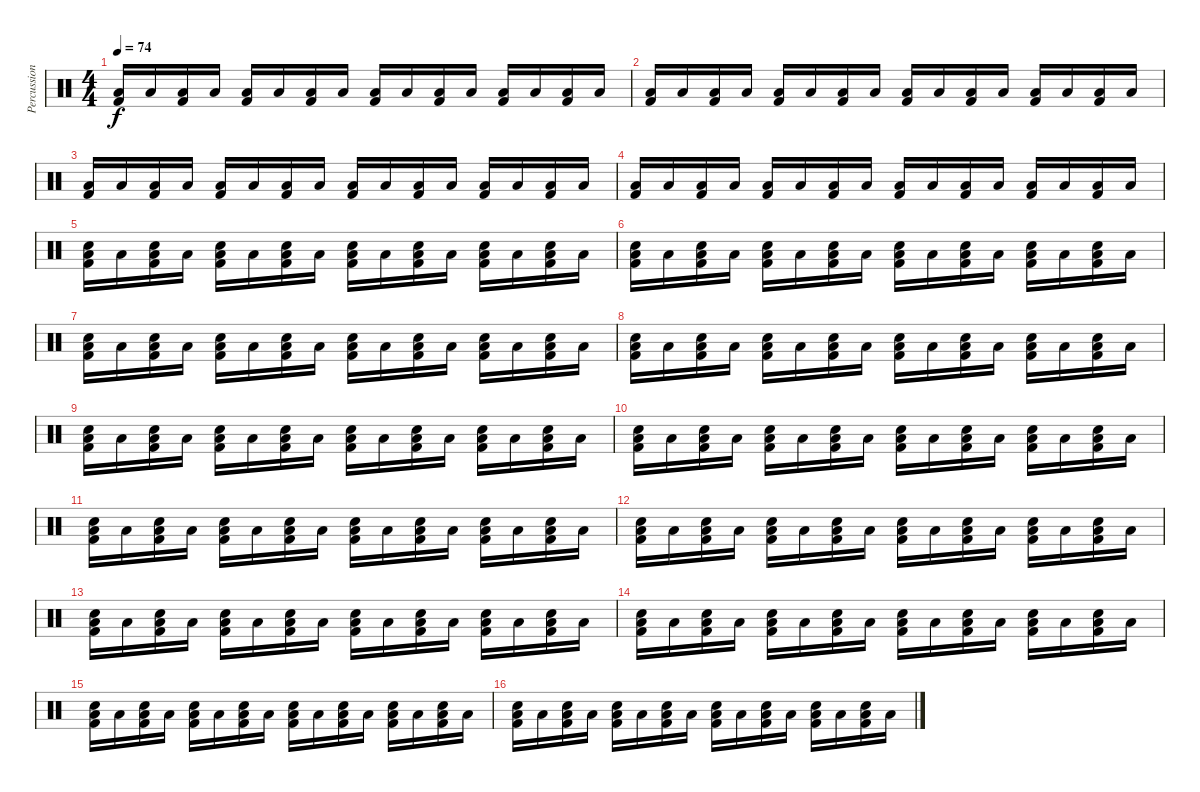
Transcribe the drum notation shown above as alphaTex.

\track ("Percussion" "Percussion") {instrument percussion}
\staff {score}
\articulation defaults
\ts (4 4)
\tempo 74
\clef neutral
\ks c
("Low Floor Tom (hit)" "Kick (hit) 2").16{dy f} "Low Floor Tom (hit)".16 ("Low Floor Tom (hit)" "Kick (hit) 2").16 "Low Floor Tom (hit)".16 ("Low Floor Tom (hit)" "Kick (hit) 2").16 "Low Floor Tom (hit)".16 ("Low Floor Tom (hit)" "Kick (hit) 2").16 "Low Floor Tom (hit)".16 ("Low Floor Tom (hit)" "Kick (hit) 2").16 "Low Floor Tom (hit)".16 ("Low Floor Tom (hit)" "Kick (hit) 2").16 "Low Floor Tom (hit)".16 ("Low Floor Tom (hit)" "Kick (hit) 2").16 "Low Floor Tom (hit)".16 ("Low Floor Tom (hit)" "Kick (hit) 2").16 "Low Floor Tom (hit)".16 |
("Low Floor Tom (hit)" "Kick (hit) 2").16 "Low Floor Tom (hit)".16 ("Low Floor Tom (hit)" "Kick (hit) 2").16 "Low Floor Tom (hit)".16 ("Low Floor Tom (hit)" "Kick (hit) 2").16 "Low Floor Tom (hit)".16 ("Low Floor Tom (hit)" "Kick (hit) 2").16 "Low Floor Tom (hit)".16 ("Low Floor Tom (hit)" "Kick (hit) 2").16 "Low Floor Tom (hit)".16 ("Low Floor Tom (hit)" "Kick (hit) 2").16 "Low Floor Tom (hit)".16 ("Low Floor Tom (hit)" "Kick (hit) 2").16 "Low Floor Tom (hit)".16 ("Low Floor Tom (hit)" "Kick (hit) 2").16 "Low Floor Tom (hit)".16 |
("Low Floor Tom (hit)" "Kick (hit) 2").16 "Low Floor Tom (hit)".16 ("Low Floor Tom (hit)" "Kick (hit) 2").16 "Low Floor Tom (hit)".16 ("Low Floor Tom (hit)" "Kick (hit) 2").16 "Low Floor Tom (hit)".16 ("Low Floor Tom (hit)" "Kick (hit) 2").16 "Low Floor Tom (hit)".16 ("Low Floor Tom (hit)" "Kick (hit) 2").16 "Low Floor Tom (hit)".16 ("Low Floor Tom (hit)" "Kick (hit) 2").16 "Low Floor Tom (hit)".16 ("Low Floor Tom (hit)" "Kick (hit) 2").16 "Low Floor Tom (hit)".16 ("Low Floor Tom (hit)" "Kick (hit) 2").16 "Low Floor Tom (hit)".16 |
("Low Floor Tom (hit)" "Kick (hit) 2").16 "Low Floor Tom (hit)".16 ("Low Floor Tom (hit)" "Kick (hit) 2").16 "Low Floor Tom (hit)".16 ("Low Floor Tom (hit)" "Kick (hit) 2").16 "Low Floor Tom (hit)".16 ("Low Floor Tom (hit)" "Kick (hit) 2").16 "Low Floor Tom (hit)".16 ("Low Floor Tom (hit)" "Kick (hit) 2").16 "Low Floor Tom (hit)".16 ("Low Floor Tom (hit)" "Kick (hit) 2").16 "Low Floor Tom (hit)".16 ("Low Floor Tom (hit)" "Kick (hit) 2").16 "Low Floor Tom (hit)".16 ("Low Floor Tom (hit)" "Kick (hit) 2").16 "Low Floor Tom (hit)".16 |
("Low Floor Tom (hit)" "Kick (hit) 2" "Electric Snare (hit)").16 "Low Floor Tom (hit)".16 ("Low Floor Tom (hit)" "Kick (hit) 2" "Electric Snare (hit)").16 "Low Floor Tom (hit)".16 ("Low Floor Tom (hit)" "Kick (hit) 2" "Electric Snare (hit)").16 "Low Floor Tom (hit)".16 ("Low Floor Tom (hit)" "Kick (hit) 2" "Electric Snare (hit)").16 "Low Floor Tom (hit)".16 ("Low Floor Tom (hit)" "Kick (hit) 2" "Electric Snare (hit)").16 "Low Floor Tom (hit)".16 ("Low Floor Tom (hit)" "Kick (hit) 2" "Electric Snare (hit)").16 "Low Floor Tom (hit)".16 ("Low Floor Tom (hit)" "Kick (hit) 2" "Electric Snare (hit)").16 "Low Floor Tom (hit)".16 ("Low Floor Tom (hit)" "Kick (hit) 2" "Electric Snare (hit)").16 "Low Floor Tom (hit)".16 |
("Low Floor Tom (hit)" "Kick (hit) 2" "Electric Snare (hit)").16 "Low Floor Tom (hit)".16 ("Low Floor Tom (hit)" "Kick (hit) 2" "Electric Snare (hit)").16 "Low Floor Tom (hit)".16 ("Low Floor Tom (hit)" "Kick (hit) 2" "Electric Snare (hit)").16 "Low Floor Tom (hit)".16 ("Low Floor Tom (hit)" "Kick (hit) 2" "Electric Snare (hit)").16 "Low Floor Tom (hit)".16 ("Low Floor Tom (hit)" "Kick (hit) 2" "Electric Snare (hit)").16 "Low Floor Tom (hit)".16 ("Low Floor Tom (hit)" "Kick (hit) 2" "Electric Snare (hit)").16 "Low Floor Tom (hit)".16 ("Low Floor Tom (hit)" "Kick (hit) 2" "Electric Snare (hit)").16 "Low Floor Tom (hit)".16 ("Low Floor Tom (hit)" "Kick (hit) 2" "Electric Snare (hit)").16 "Low Floor Tom (hit)".16 |
("Low Floor Tom (hit)" "Kick (hit) 2" "Electric Snare (hit)").16 "Low Floor Tom (hit)".16 ("Low Floor Tom (hit)" "Kick (hit) 2" "Electric Snare (hit)").16 "Low Floor Tom (hit)".16 ("Low Floor Tom (hit)" "Kick (hit) 2" "Electric Snare (hit)").16 "Low Floor Tom (hit)".16 ("Low Floor Tom (hit)" "Kick (hit) 2" "Electric Snare (hit)").16 "Low Floor Tom (hit)".16 ("Low Floor Tom (hit)" "Kick (hit) 2" "Electric Snare (hit)").16 "Low Floor Tom (hit)".16 ("Low Floor Tom (hit)" "Kick (hit) 2" "Electric Snare (hit)").16 "Low Floor Tom (hit)".16 ("Low Floor Tom (hit)" "Kick (hit) 2" "Electric Snare (hit)").16 "Low Floor Tom (hit)".16 ("Low Floor Tom (hit)" "Kick (hit) 2" "Electric Snare (hit)").16 "Low Floor Tom (hit)".16 |
("Low Floor Tom (hit)" "Kick (hit) 2" "Electric Snare (hit)").16 "Low Floor Tom (hit)".16 ("Low Floor Tom (hit)" "Kick (hit) 2" "Electric Snare (hit)").16 "Low Floor Tom (hit)".16 ("Low Floor Tom (hit)" "Kick (hit) 2" "Electric Snare (hit)").16 "Low Floor Tom (hit)".16 ("Low Floor Tom (hit)" "Kick (hit) 2" "Electric Snare (hit)").16 "Low Floor Tom (hit)".16 ("Low Floor Tom (hit)" "Kick (hit) 2" "Electric Snare (hit)").16 "Low Floor Tom (hit)".16 ("Low Floor Tom (hit)" "Kick (hit) 2" "Electric Snare (hit)").16 "Low Floor Tom (hit)".16 ("Low Floor Tom (hit)" "Kick (hit) 2" "Electric Snare (hit)").16 "Low Floor Tom (hit)".16 ("Low Floor Tom (hit)" "Kick (hit) 2" "Electric Snare (hit)").16 "Low Floor Tom (hit)".16 |
("Low Floor Tom (hit)" "Kick (hit) 2" "Electric Snare (hit)").16 "Low Floor Tom (hit)".16 ("Low Floor Tom (hit)" "Kick (hit) 2" "Electric Snare (hit)").16 "Low Floor Tom (hit)".16 ("Low Floor Tom (hit)" "Kick (hit) 2" "Electric Snare (hit)").16 "Low Floor Tom (hit)".16 ("Low Floor Tom (hit)" "Kick (hit) 2" "Electric Snare (hit)").16 "Low Floor Tom (hit)".16 ("Low Floor Tom (hit)" "Kick (hit) 2" "Electric Snare (hit)").16 "Low Floor Tom (hit)".16 ("Low Floor Tom (hit)" "Kick (hit) 2" "Electric Snare (hit)").16 "Low Floor Tom (hit)".16 ("Low Floor Tom (hit)" "Kick (hit) 2" "Electric Snare (hit)").16 "Low Floor Tom (hit)".16 ("Low Floor Tom (hit)" "Kick (hit) 2" "Electric Snare (hit)").16 "Low Floor Tom (hit)".16 |
("Low Floor Tom (hit)" "Kick (hit) 2" "Electric Snare (hit)").16 "Low Floor Tom (hit)".16 ("Low Floor Tom (hit)" "Kick (hit) 2" "Electric Snare (hit)").16 "Low Floor Tom (hit)".16 ("Low Floor Tom (hit)" "Kick (hit) 2" "Electric Snare (hit)").16 "Low Floor Tom (hit)".16 ("Low Floor Tom (hit)" "Kick (hit) 2" "Electric Snare (hit)").16 "Low Floor Tom (hit)".16 ("Low Floor Tom (hit)" "Kick (hit) 2" "Electric Snare (hit)").16 "Low Floor Tom (hit)".16 ("Low Floor Tom (hit)" "Kick (hit) 2" "Electric Snare (hit)").16 "Low Floor Tom (hit)".16 ("Low Floor Tom (hit)" "Kick (hit) 2" "Electric Snare (hit)").16 "Low Floor Tom (hit)".16 ("Low Floor Tom (hit)" "Kick (hit) 2" "Electric Snare (hit)").16 "Low Floor Tom (hit)".16 |
("Low Floor Tom (hit)" "Kick (hit) 2" "Electric Snare (hit)").16 "Low Floor Tom (hit)".16 ("Low Floor Tom (hit)" "Kick (hit) 2" "Electric Snare (hit)").16 "Low Floor Tom (hit)".16 ("Low Floor Tom (hit)" "Kick (hit) 2" "Electric Snare (hit)").16 "Low Floor Tom (hit)".16 ("Low Floor Tom (hit)" "Kick (hit) 2" "Electric Snare (hit)").16 "Low Floor Tom (hit)".16 ("Low Floor Tom (hit)" "Kick (hit) 2" "Electric Snare (hit)").16 "Low Floor Tom (hit)".16 ("Low Floor Tom (hit)" "Kick (hit) 2" "Electric Snare (hit)").16 "Low Floor Tom (hit)".16 ("Low Floor Tom (hit)" "Kick (hit) 2" "Electric Snare (hit)").16 "Low Floor Tom (hit)".16 ("Low Floor Tom (hit)" "Kick (hit) 2" "Electric Snare (hit)").16 "Low Floor Tom (hit)".16 |
("Low Floor Tom (hit)" "Kick (hit) 2" "Electric Snare (hit)").16 "Low Floor Tom (hit)".16 ("Low Floor Tom (hit)" "Kick (hit) 2" "Electric Snare (hit)").16 "Low Floor Tom (hit)".16 ("Low Floor Tom (hit)" "Kick (hit) 2" "Electric Snare (hit)").16 "Low Floor Tom (hit)".16 ("Low Floor Tom (hit)" "Kick (hit) 2" "Electric Snare (hit)").16 "Low Floor Tom (hit)".16 ("Low Floor Tom (hit)" "Kick (hit) 2" "Electric Snare (hit)").16 "Low Floor Tom (hit)".16 ("Low Floor Tom (hit)" "Kick (hit) 2" "Electric Snare (hit)").16 "Low Floor Tom (hit)".16 ("Low Floor Tom (hit)" "Kick (hit) 2" "Electric Snare (hit)").16 "Low Floor Tom (hit)".16 ("Low Floor Tom (hit)" "Kick (hit) 2" "Electric Snare (hit)").16 "Low Floor Tom (hit)".16 |
("Low Floor Tom (hit)" "Kick (hit) 2" "Electric Snare (hit)").16 "Low Floor Tom (hit)".16 ("Low Floor Tom (hit)" "Kick (hit) 2" "Electric Snare (hit)").16 "Low Floor Tom (hit)".16 ("Low Floor Tom (hit)" "Kick (hit) 2" "Electric Snare (hit)").16 "Low Floor Tom (hit)".16 ("Low Floor Tom (hit)" "Kick (hit) 2" "Electric Snare (hit)").16 "Low Floor Tom (hit)".16 ("Low Floor Tom (hit)" "Kick (hit) 2" "Electric Snare (hit)").16 "Low Floor Tom (hit)".16 ("Low Floor Tom (hit)" "Kick (hit) 2" "Electric Snare (hit)").16 "Low Floor Tom (hit)".16 ("Low Floor Tom (hit)" "Kick (hit) 2" "Electric Snare (hit)").16 "Low Floor Tom (hit)".16 ("Low Floor Tom (hit)" "Kick (hit) 2" "Electric Snare (hit)").16 "Low Floor Tom (hit)".16 |
("Low Floor Tom (hit)" "Kick (hit) 2" "Electric Snare (hit)").16 "Low Floor Tom (hit)".16 ("Low Floor Tom (hit)" "Kick (hit) 2" "Electric Snare (hit)").16 "Low Floor Tom (hit)".16 ("Low Floor Tom (hit)" "Kick (hit) 2" "Electric Snare (hit)").16 "Low Floor Tom (hit)".16 ("Low Floor Tom (hit)" "Kick (hit) 2" "Electric Snare (hit)").16 "Low Floor Tom (hit)".16 ("Low Floor Tom (hit)" "Kick (hit) 2" "Electric Snare (hit)").16 "Low Floor Tom (hit)".16 ("Low Floor Tom (hit)" "Kick (hit) 2" "Electric Snare (hit)").16 "Low Floor Tom (hit)".16 ("Low Floor Tom (hit)" "Kick (hit) 2" "Electric Snare (hit)").16 "Low Floor Tom (hit)".16 ("Low Floor Tom (hit)" "Kick (hit) 2" "Electric Snare (hit)").16 "Low Floor Tom (hit)".16 |
("Low Floor Tom (hit)" "Kick (hit) 2" "Electric Snare (hit)").16 "Low Floor Tom (hit)".16 ("Low Floor Tom (hit)" "Kick (hit) 2" "Electric Snare (hit)").16 "Low Floor Tom (hit)".16 ("Low Floor Tom (hit)" "Kick (hit) 2" "Electric Snare (hit)").16 "Low Floor Tom (hit)".16 ("Low Floor Tom (hit)" "Kick (hit) 2" "Electric Snare (hit)").16 "Low Floor Tom (hit)".16 ("Low Floor Tom (hit)" "Kick (hit) 2" "Electric Snare (hit)").16 "Low Floor Tom (hit)".16 ("Low Floor Tom (hit)" "Kick (hit) 2" "Electric Snare (hit)").16 "Low Floor Tom (hit)".16 ("Low Floor Tom (hit)" "Kick (hit) 2" "Electric Snare (hit)").16 "Low Floor Tom (hit)".16 ("Low Floor Tom (hit)" "Kick (hit) 2" "Electric Snare (hit)").16 "Low Floor Tom (hit)".16 |
("Low Floor Tom (hit)" "Kick (hit) 2" "Electric Snare (hit)").16 "Low Floor Tom (hit)".16 ("Low Floor Tom (hit)" "Kick (hit) 2" "Electric Snare (hit)").16 "Low Floor Tom (hit)".16 ("Low Floor Tom (hit)" "Kick (hit) 2" "Electric Snare (hit)").16 "Low Floor Tom (hit)".16 ("Low Floor Tom (hit)" "Kick (hit) 2" "Electric Snare (hit)").16 "Low Floor Tom (hit)".16 ("Low Floor Tom (hit)" "Kick (hit) 2" "Electric Snare (hit)").16 "Low Floor Tom (hit)".16 ("Low Floor Tom (hit)" "Kick (hit) 2" "Electric Snare (hit)").16 "Low Floor Tom (hit)".16 ("Low Floor Tom (hit)" "Kick (hit) 2" "Electric Snare (hit)").16 "Low Floor Tom (hit)".16 ("Low Floor Tom (hit)" "Kick (hit) 2" "Electric Snare (hit)").16 "Low Floor Tom (hit)".16
